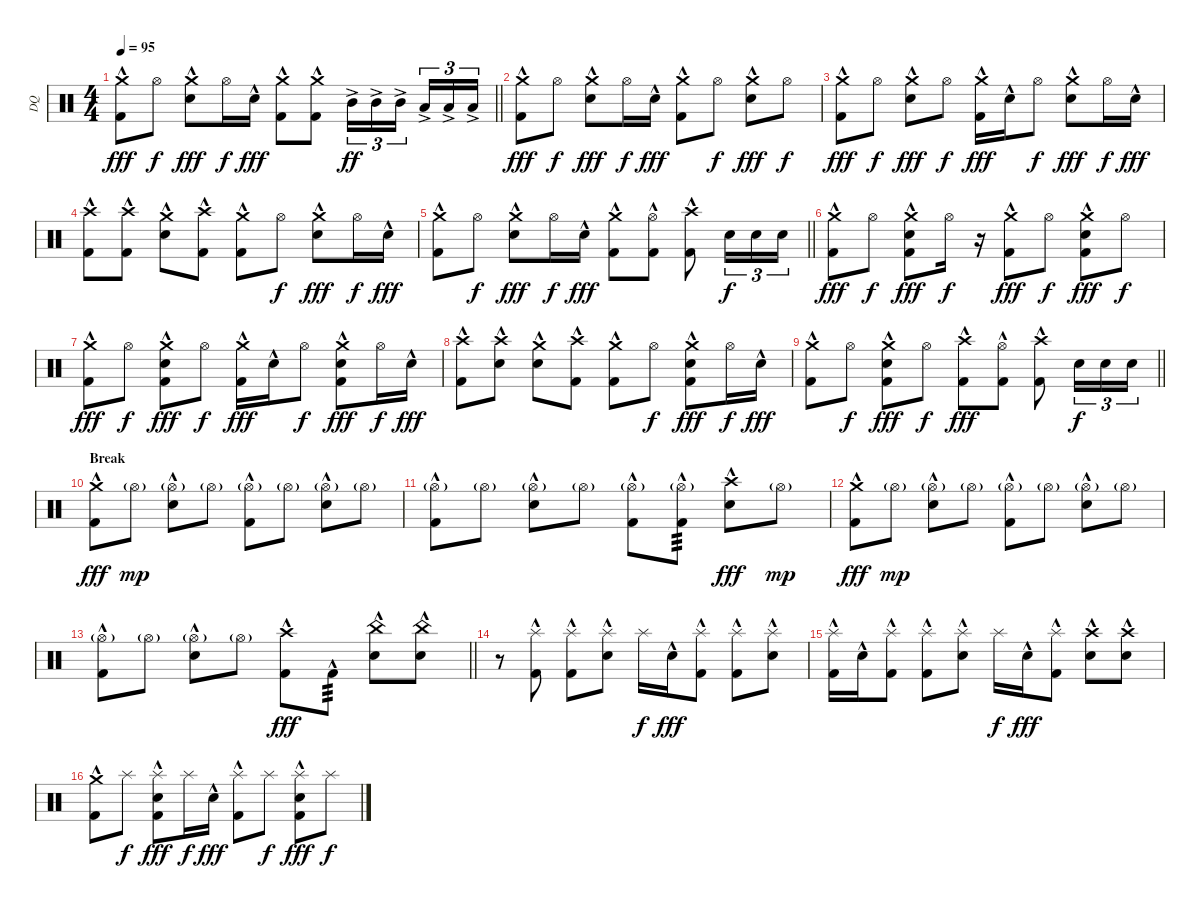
\track ("DQ" "DQ") {instrument percussion}
\staff {score}
\articulation defaults
\ts (4 4)
\tempo 95
\clef neutral
\barLineRight lightlight
\ks c
("Kick (hit) 2"{hac} "Crash medium (hit)").8{dy fff} "Hi-Hat (open)".8{dy f} ("Snare (hit) 2"{hac} "Crash medium (hit)").8{dy fff} "Hi-Hat (open)".16{dy f} "Snare (hit) 2"{hac}.16{dy fff} ("Kick (hit) 2"{hac} "Crash medium (hit)").8 ("Kick (hit) 2"{hac} "Crash medium (hit)").8 "Mid Tom (hit)"{ac}.16{tu (3 2) dy ff} "Mid Tom (hit)"{ac}.16{tu (3 2)} "Mid Tom (hit)"{ac}.16{tu (3 2) beam splitsecondary} "Low Tom (hit)"{ac}.16{tu (3 2)} "Low Tom (hit)"{ac}.16{tu (3 2)} "Low Tom (hit)"{ac}.16{tu (3 2)} |
\section ("" "")
("Kick (hit) 2"{hac} "Crash medium (hit)").8{dy fff} "Hi-Hat (open)".8{dy f} ("Snare (hit) 2"{hac} "Crash medium (hit)").8{dy fff} "Hi-Hat (open)".16{dy f} "Snare (hit) 2"{hac}.16{dy fff} ("Kick (hit) 2"{hac} "Crash medium (hit)").8 "Hi-Hat (open)".8{dy f} ("Snare (hit) 2"{hac} "Crash medium (hit)").8{dy fff} "Hi-Hat (open)".8{dy f} |
("Kick (hit) 2"{hac} "Crash medium (hit)").8{dy fff} "Hi-Hat (open)".8{dy f} ("Snare (hit) 2"{hac} "Crash medium (hit)").8{dy fff} "Hi-Hat (open)".8{dy f} ("Kick (hit) 2"{hac} "Crash medium (hit)").16{dy fff} "Snare (hit) 2"{hac}.16 "Hi-Hat (open)".8{dy f} ("Snare (hit) 2"{hac} "Crash medium (hit)").8{dy fff} "Hi-Hat (open)".16{dy f} "Snare (hit) 2"{hac}.16{dy fff} |
("Kick (hit) 2"{hac} "Crash high (hit)").8 ("Kick (hit) 2"{hac} "Crash high (hit)").8 ("Snare (hit) 2"{hac} "Crash medium (hit)").8 ("Kick (hit) 2"{hac} "Crash high (hit)").8 ("Kick (hit) 2"{hac} "Crash medium (hit)").8 "Hi-Hat (open)".8{dy f} ("Snare (hit) 2"{hac} "Crash medium (hit)").8{dy fff} "Hi-Hat (open)".16{dy f} "Snare (hit) 2"{hac}.16{dy fff} |
\barLineRight lightlight
("Kick (hit) 2"{hac} "Crash medium (hit)").8 "Hi-Hat (open)".8{dy f} ("Snare (hit) 2"{hac} "Crash medium (hit)").8{dy fff} "Hi-Hat (open)".16{dy f} "Snare (hit) 2"{hac}.16{dy fff} ("Kick (hit) 2"{hac} "Crash medium (hit)").8 ("Kick (hit) 2"{hac} "Hi-Hat (open)").8 ("Kick (hit) 2"{hac} "Crash high (hit)").8 "Snare (hit) 2".16{tu (3 2) dy f} "Snare (hit) 2".16{tu (3 2)} "Snare (hit) 2".16{tu (3 2)} |
\section ("" "")
("Kick (hit) 2"{hac} "Crash medium (hit)").8{dy fff} "Hi-Hat (open)".8{dy f} ("Kick (hit) 2"{hac} "Snare (hit) 2"{hac} "Crash medium (hit)").8{dy fff} "Hi-Hat (open)".16{dy f} r.16 ("Kick (hit) 2"{hac} "Crash medium (hit)").8{dy fff} "Hi-Hat (open)".8{dy f} ("Kick (hit) 2"{hac} "Snare (hit) 2"{hac} "Crash medium (hit)").8{dy fff} "Hi-Hat (open)".8{dy f} |
("Kick (hit) 2"{hac} "Crash medium (hit)").8{dy fff} "Hi-Hat (open)".8{dy f} ("Kick (hit) 2"{hac} "Snare (hit) 2"{hac} "Crash medium (hit)").8{dy fff} "Hi-Hat (open)".8{dy f} ("Kick (hit) 2"{hac} "Crash medium (hit)").16{dy fff} "Snare (hit) 2"{hac}.16 "Hi-Hat (open)".8{dy f} ("Kick (hit) 2"{hac} "Snare (hit) 2"{hac} "Crash medium (hit)").8{dy fff} "Hi-Hat (open)".16{dy f} "Snare (hit) 2"{hac}.16{dy fff} |
("Kick (hit) 2"{hac} "Crash high (hit)").8 ("Snare (hit) 2"{hac} "Crash high (hit)").8 ("Snare (hit) 2"{hac} "Crash medium (hit)").8 ("Kick (hit) 2"{hac} "Crash high (hit)").8 ("Kick (hit) 2"{hac} "Crash medium (hit)").8 "Hi-Hat (open)".8{dy f} ("Kick (hit) 2"{hac} "Snare (hit) 2"{hac} "Crash medium (hit)").8{dy fff} "Hi-Hat (open)".16{dy f} "Snare (hit) 2"{hac}.16{dy fff} |
\barLineRight lightlight
("Kick (hit) 2"{hac} "Crash medium (hit)").8 "Hi-Hat (open)".8{dy f} ("Kick (hit) 2"{hac} "Snare (hit) 2"{hac} "Crash medium (hit)").8{dy fff} "Hi-Hat (open)".8{dy f} ("Kick (hit) 2"{hac} "Crash high (hit)").8{dy fff} ("Kick (hit) 2"{hac} "Hi-Hat (open)").8 ("Kick (hit) 2"{hac} "Crash high (hit)").8 "Snare (hit) 2".16{tu (3 2) dy f} "Snare (hit) 2".16{tu (3 2)} "Snare (hit) 2".16{tu (3 2)} |
\section ("" "Break")
("Kick (hit) 2"{hac} "Crash medium (hit)").8{dy fff} "Hi-Hat (open)"{g}.8{dy mp} ("Snare (hit) 2"{hac} "Hi-Hat (open)"{g}).8 "Hi-Hat (open)"{g}.8 ("Kick (hit) 2"{hac} "Hi-Hat (open)"{g}).8 "Hi-Hat (open)"{g}.8 ("Snare (hit) 2"{hac} "Hi-Hat (open)"{g}).8 "Hi-Hat (open)"{g}.8 |
("Kick (hit) 2"{hac} "Hi-Hat (open)"{g}).8 "Hi-Hat (open)"{g}.8 ("Snare (hit) 2"{hac} "Hi-Hat (open)"{g}).8 "Hi-Hat (open)"{g}.8 ("Kick (hit) 2"{hac} "Hi-Hat (open)"{g}).8 ("Kick (hit) 2"{hac} "Hi-Hat (open)"{g}).8{tp 3} ("Snare (hit) 2"{hac} "Crash high (hit)").8{dy fff} "Hi-Hat (open)"{g}.8{dy mp} |
("Kick (hit) 2"{hac} "Crash medium (hit)").8{dy fff} "Hi-Hat (open)"{g}.8{dy mp} ("Snare (hit) 2"{hac} "Hi-Hat (open)"{g}).8 "Hi-Hat (open)"{g}.8 ("Kick (hit) 2"{hac} "Hi-Hat (open)"{g}).8 "Hi-Hat (open)"{g}.8 ("Snare (hit) 2"{hac} "Hi-Hat (open)"{g}).8 "Hi-Hat (open)"{g}.8 |
\barLineRight lightlight
("Kick (hit) 2"{hac} "Hi-Hat (open)"{g}).8 "Hi-Hat (open)"{g}.8 ("Snare (hit) 2"{hac} "Hi-Hat (open)"{g}).8 "Hi-Hat (open)"{g}.8 ("Kick (hit) 2"{hac} "Crash high (hit)").8{dy fff} "Kick (hit) 2"{hac}.8{tp 3} ("Snare (hit) 2"{hac} "China (hit)").8 ("Snare (hit) 2"{hac} "China (hit)").8 |
\section ("" "")
r.8 ("Kick (hit) 2"{hac} "Splash (hit)").8 ("Kick (hit) 2"{hac} "Splash (hit)").8 ("Snare (hit) 2"{hac} "Splash (hit)").8 "Splash (hit)".16{dy f} "Snare (hit) 2"{hac}.16{dy fff} ("Kick (hit) 2"{hac} "Splash (hit)").8 ("Kick (hit) 2"{hac} "Splash (hit)").8 ("Snare (hit) 2"{hac} "Splash (hit)").8 |
("Kick (hit) 2"{hac} "Splash (hit)").16 "Snare (hit) 2"{hac}.16 ("Kick (hit) 2"{hac} "Splash (hit)").8 ("Kick (hit) 2"{hac} "Splash (hit)").8 ("Snare (hit) 2"{hac} "Splash (hit)").8 "Splash (hit)".16{dy f} "Snare (hit) 2"{hac}.16{dy fff} ("Kick (hit) 2"{hac} "Splash (hit)").8 ("Snare (hit) 2"{hac} "Crash high (hit)").8 ("Snare (hit) 2"{hac} "Crash high (hit)").8 |
("Kick (hit) 2"{hac} "Crash medium (hit)").8 "Splash (hit)".8{dy f} ("Kick (hit) 2"{hac} "Snare (hit) 2"{hac} "Splash (hit)").8{dy fff} "Splash (hit)".16{dy f} "Snare (hit) 2"{hac}.16{dy fff} ("Kick (hit) 2"{hac} "Splash (hit)").8 "Splash (hit)".8{dy f} ("Kick (hit) 2"{hac} "Snare (hit) 2"{hac} "Splash (hit)").8{dy fff} "Splash (hit)".8{dy f}
